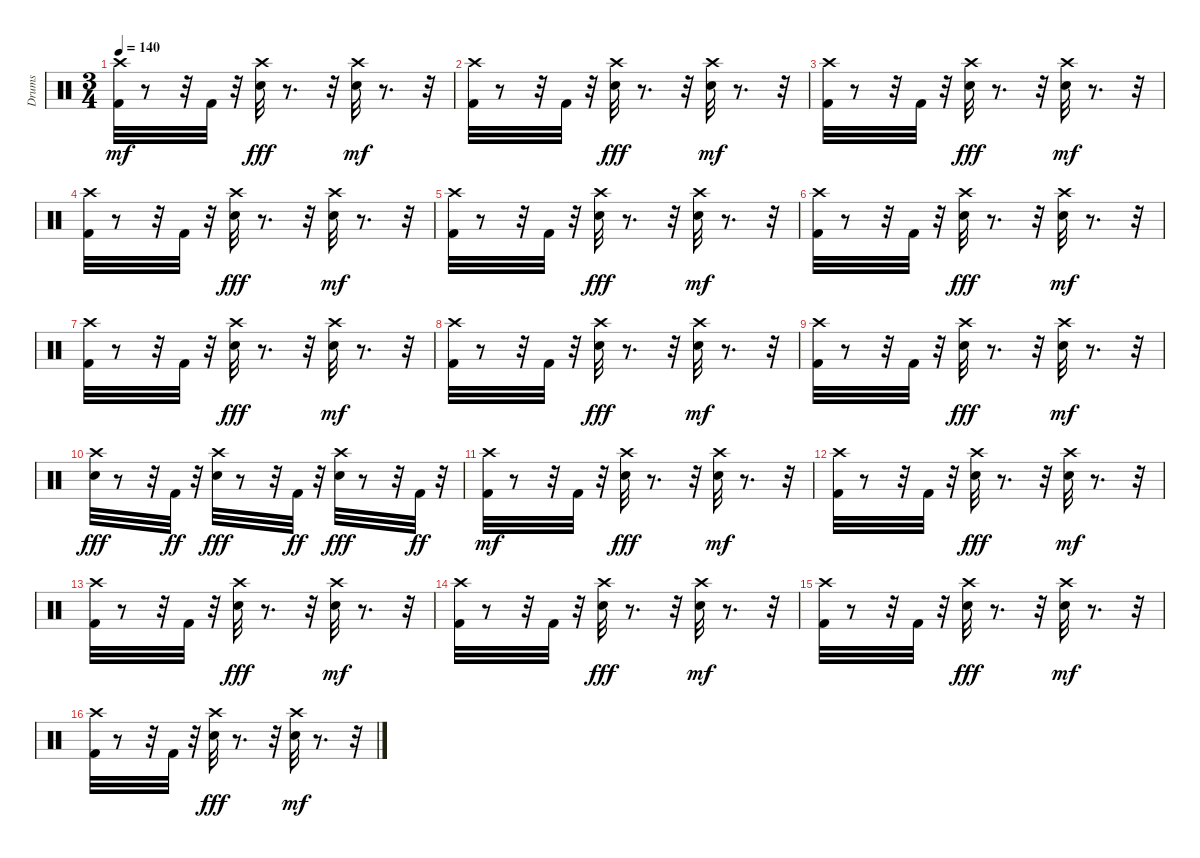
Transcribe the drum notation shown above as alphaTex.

\track ("Drums" "Drums") {instrument percussion}
\staff {score}
\articulation defaults
\ts (3 4)
\tempo 140
\clef neutral
\ks c
("Kick (hit) 2" "Crash high (hit)").32{dy mf} r.8 r.32 "Kick (hit) 2".32 r.32 ("Snare (hit) 2" "Crash high (hit)").32{dy fff} r.8{d} r.32 ("Snare (hit) 2" "Crash high (hit)").32{dy mf} r.8{d} r.32 |
("Kick (hit) 2" "Crash high (hit)").32 r.8 r.32 "Kick (hit) 2".32 r.32 ("Snare (hit) 2" "Crash high (hit)").32{dy fff} r.8{d} r.32 ("Snare (hit) 2" "Crash high (hit)").32{dy mf} r.8{d} r.32 |
("Kick (hit) 2" "Crash high (hit)").32 r.8 r.32 "Kick (hit) 2".32 r.32 ("Snare (hit) 2" "Crash high (hit)").32{dy fff} r.8{d} r.32 ("Snare (hit) 2" "Crash high (hit)").32{dy mf} r.8{d} r.32 |
("Kick (hit) 2" "Crash high (hit)").32 r.8 r.32 "Kick (hit) 2".32 r.32 ("Snare (hit) 2" "Crash high (hit)").32{dy fff} r.8{d} r.32 ("Snare (hit) 2" "Crash high (hit)").32{dy mf} r.8{d} r.32 |
("Kick (hit) 2" "Crash high (hit)").32 r.8 r.32 "Kick (hit) 2".32 r.32 ("Snare (hit) 2" "Crash high (hit)").32{dy fff} r.8{d} r.32 ("Snare (hit) 2" "Crash high (hit)").32{dy mf} r.8{d} r.32 |
("Kick (hit) 2" "Crash high (hit)").32 r.8 r.32 "Kick (hit) 2".32 r.32 ("Snare (hit) 2" "Crash high (hit)").32{dy fff} r.8{d} r.32 ("Snare (hit) 2" "Crash high (hit)").32{dy mf} r.8{d} r.32 |
("Kick (hit) 2" "Crash high (hit)").32 r.8 r.32 "Kick (hit) 2".32 r.32 ("Snare (hit) 2" "Crash high (hit)").32{dy fff} r.8{d} r.32 ("Snare (hit) 2" "Crash high (hit)").32{dy mf} r.8{d} r.32 |
("Kick (hit) 2" "Crash high (hit)").32 r.8 r.32 "Kick (hit) 2".32 r.32 ("Snare (hit) 2" "Crash high (hit)").32{dy fff} r.8{d} r.32 ("Snare (hit) 2" "Crash high (hit)").32{dy mf} r.8{d} r.32 |
("Kick (hit) 2" "Crash high (hit)").32 r.8 r.32 "Kick (hit) 2".32 r.32 ("Snare (hit) 2" "Crash high (hit)").32{dy fff} r.8{d} r.32 ("Snare (hit) 2" "Crash high (hit)").32{dy mf} r.8{d} r.32 |
("Snare (hit) 2" "Crash high (hit)").32{dy fff} r.8 r.32 "Kick (hit) 2".32{dy ff} r.32 ("Snare (hit) 2" "Crash high (hit)").32{dy fff} r.8 r.32 "Kick (hit) 2".32{dy ff} r.32 ("Snare (hit) 2" "Crash high (hit)").32{dy fff} r.8 r.32 "Kick (hit) 2".32{dy ff} r.32 |
("Kick (hit) 2" "Crash high (hit)").32{dy mf} r.8 r.32 "Kick (hit) 2".32 r.32 ("Snare (hit) 2" "Crash high (hit)").32{dy fff} r.8{d} r.32 ("Snare (hit) 2" "Crash high (hit)").32{dy mf} r.8{d} r.32 |
("Kick (hit) 2" "Crash high (hit)").32 r.8 r.32 "Kick (hit) 2".32 r.32 ("Snare (hit) 2" "Crash high (hit)").32{dy fff} r.8{d} r.32 ("Snare (hit) 2" "Crash high (hit)").32{dy mf} r.8{d} r.32 |
("Kick (hit) 2" "Crash high (hit)").32 r.8 r.32 "Kick (hit) 2".32 r.32 ("Snare (hit) 2" "Crash high (hit)").32{dy fff} r.8{d} r.32 ("Snare (hit) 2" "Crash high (hit)").32{dy mf} r.8{d} r.32 |
("Kick (hit) 2" "Crash high (hit)").32 r.8 r.32 "Kick (hit) 2".32 r.32 ("Snare (hit) 2" "Crash high (hit)").32{dy fff} r.8{d} r.32 ("Snare (hit) 2" "Crash high (hit)").32{dy mf} r.8{d} r.32 |
("Kick (hit) 2" "Crash high (hit)").32 r.8 r.32 "Kick (hit) 2".32 r.32 ("Snare (hit) 2" "Crash high (hit)").32{dy fff} r.8{d} r.32 ("Snare (hit) 2" "Crash high (hit)").32{dy mf} r.8{d} r.32 |
("Kick (hit) 2" "Crash high (hit)").32 r.8 r.32 "Kick (hit) 2".32 r.32 ("Snare (hit) 2" "Crash high (hit)").32{dy fff} r.8{d} r.32 ("Snare (hit) 2" "Crash high (hit)").32{dy mf} r.8{d} r.32
